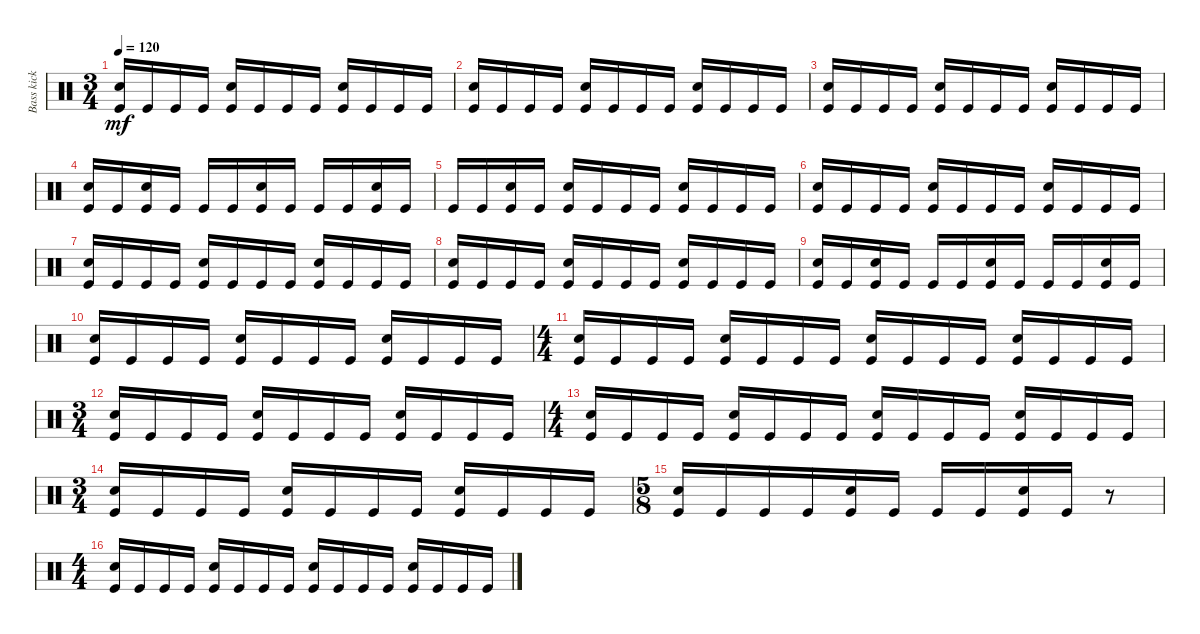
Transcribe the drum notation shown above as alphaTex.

\track ("Bass kick" "Bass kick") {instrument percussion}
\staff {score}
\articulation defaults
\ts (3 4)
\tempo 120
\clef neutral
\ks c
("Kick (hit)" "Snare (hit) 2").16{dy mf} "Kick (hit)".16 "Kick (hit)".16 "Kick (hit)".16 ("Kick (hit)" "Snare (hit) 2").16 "Kick (hit)".16 "Kick (hit)".16 "Kick (hit)".16 ("Kick (hit)" "Snare (hit) 2").16 "Kick (hit)".16 "Kick (hit)".16 "Kick (hit)".16 |
("Kick (hit)" "Snare (hit) 2").16 "Kick (hit)".16 "Kick (hit)".16 "Kick (hit)".16 ("Kick (hit)" "Snare (hit) 2").16 "Kick (hit)".16 "Kick (hit)".16 "Kick (hit)".16 ("Kick (hit)" "Snare (hit) 2").16 "Kick (hit)".16 "Kick (hit)".16 "Kick (hit)".16 |
("Kick (hit)" "Snare (hit) 2").16 "Kick (hit)".16 "Kick (hit)".16 "Kick (hit)".16 ("Kick (hit)" "Snare (hit) 2").16 "Kick (hit)".16 "Kick (hit)".16 "Kick (hit)".16 ("Kick (hit)" "Snare (hit) 2").16 "Kick (hit)".16 "Kick (hit)".16 "Kick (hit)".16 |
("Kick (hit)" "Snare (hit) 2").16 "Kick (hit)".16 ("Kick (hit)" "Snare (hit) 2").16 "Kick (hit)".16 "Kick (hit)".16 "Kick (hit)".16 ("Kick (hit)" "Snare (hit) 2").16 "Kick (hit)".16 "Kick (hit)".16 "Kick (hit)".16 ("Kick (hit)" "Snare (hit) 2").16 "Kick (hit)".16 |
"Kick (hit)".16 "Kick (hit)".16 ("Kick (hit)" "Snare (hit) 2").16 "Kick (hit)".16 ("Kick (hit)" "Snare (hit) 2").16 "Kick (hit)".16 "Kick (hit)".16 "Kick (hit)".16 ("Kick (hit)" "Snare (hit) 2").16 "Kick (hit)".16 "Kick (hit)".16 "Kick (hit)".16 |
("Kick (hit)" "Snare (hit) 2").16 "Kick (hit)".16 "Kick (hit)".16 "Kick (hit)".16 ("Kick (hit)" "Snare (hit) 2").16 "Kick (hit)".16 "Kick (hit)".16 "Kick (hit)".16 ("Kick (hit)" "Snare (hit) 2").16 "Kick (hit)".16 "Kick (hit)".16 "Kick (hit)".16 |
("Kick (hit)" "Snare (hit) 2").16 "Kick (hit)".16 "Kick (hit)".16 "Kick (hit)".16 ("Kick (hit)" "Snare (hit) 2").16 "Kick (hit)".16 "Kick (hit)".16 "Kick (hit)".16 ("Kick (hit)" "Snare (hit) 2").16 "Kick (hit)".16 "Kick (hit)".16 "Kick (hit)".16 |
("Kick (hit)" "Snare (hit) 2").16 "Kick (hit)".16 "Kick (hit)".16 "Kick (hit)".16 ("Kick (hit)" "Snare (hit) 2").16 "Kick (hit)".16 "Kick (hit)".16 "Kick (hit)".16 ("Kick (hit)" "Snare (hit) 2").16 "Kick (hit)".16 "Kick (hit)".16 "Kick (hit)".16 |
("Kick (hit)" "Snare (hit) 2").16 "Kick (hit)".16 ("Kick (hit)" "Snare (hit) 2").16 "Kick (hit)".16 "Kick (hit)".16 "Kick (hit)".16 ("Kick (hit)" "Snare (hit) 2").16 "Kick (hit)".16 "Kick (hit)".16 "Kick (hit)".16 ("Kick (hit)" "Snare (hit) 2").16 "Kick (hit)".16 |
("Kick (hit)" "Snare (hit) 2").16 "Kick (hit)".16 "Kick (hit)".16 "Kick (hit)".16 ("Kick (hit)" "Snare (hit) 2").16 "Kick (hit)".16 "Kick (hit)".16 "Kick (hit)".16 ("Kick (hit)" "Snare (hit) 2").16 "Kick (hit)".16 "Kick (hit)".16 "Kick (hit)".16 |
\ts (4 4)
("Kick (hit)" "Snare (hit) 2").16 "Kick (hit)".16 "Kick (hit)".16 "Kick (hit)".16 ("Kick (hit)" "Snare (hit) 2").16 "Kick (hit)".16 "Kick (hit)".16 "Kick (hit)".16 ("Kick (hit)" "Snare (hit) 2").16 "Kick (hit)".16 "Kick (hit)".16 "Kick (hit)".16 ("Kick (hit)" "Snare (hit) 2").16 "Kick (hit)".16 "Kick (hit)".16 "Kick (hit)".16 |
\ts (3 4)
("Kick (hit)" "Snare (hit) 2").16 "Kick (hit)".16 "Kick (hit)".16 "Kick (hit)".16 ("Kick (hit)" "Snare (hit) 2").16 "Kick (hit)".16 "Kick (hit)".16 "Kick (hit)".16 ("Kick (hit)" "Snare (hit) 2").16 "Kick (hit)".16 "Kick (hit)".16 "Kick (hit)".16 |
\ts (4 4)
("Kick (hit)" "Snare (hit) 2").16 "Kick (hit)".16 "Kick (hit)".16 "Kick (hit)".16 ("Kick (hit)" "Snare (hit) 2").16 "Kick (hit)".16 "Kick (hit)".16 "Kick (hit)".16 ("Kick (hit)" "Snare (hit) 2").16 "Kick (hit)".16 "Kick (hit)".16 "Kick (hit)".16 ("Kick (hit)" "Snare (hit) 2").16 "Kick (hit)".16 "Kick (hit)".16 "Kick (hit)".16 |
\ts (3 4)
("Kick (hit)" "Snare (hit) 2").16 "Kick (hit)".16 "Kick (hit)".16 "Kick (hit)".16 ("Kick (hit)" "Snare (hit) 2").16 "Kick (hit)".16 "Kick (hit)".16 "Kick (hit)".16 ("Kick (hit)" "Snare (hit) 2").16 "Kick (hit)".16 "Kick (hit)".16 "Kick (hit)".16 |
\ts (5 8)
("Kick (hit)" "Snare (hit) 2").16 "Kick (hit)".16 "Kick (hit)".16 "Kick (hit)".16 ("Kick (hit)" "Snare (hit) 2").16 "Kick (hit)".16 "Kick (hit)".16 "Kick (hit)".16 ("Kick (hit)" "Snare (hit) 2").16 "Kick (hit)".16 r.8 |
\ts (4 4)
("Kick (hit)" "Snare (hit) 2").16 "Kick (hit)".16 "Kick (hit)".16 "Kick (hit)".16 ("Kick (hit)" "Snare (hit) 2").16 "Kick (hit)".16 "Kick (hit)".16 "Kick (hit)".16 ("Kick (hit)" "Snare (hit) 2").16 "Kick (hit)".16 "Kick (hit)".16 "Kick (hit)".16 ("Kick (hit)" "Snare (hit) 2").16 "Kick (hit)".16 "Kick (hit)".16 "Kick (hit)".16
